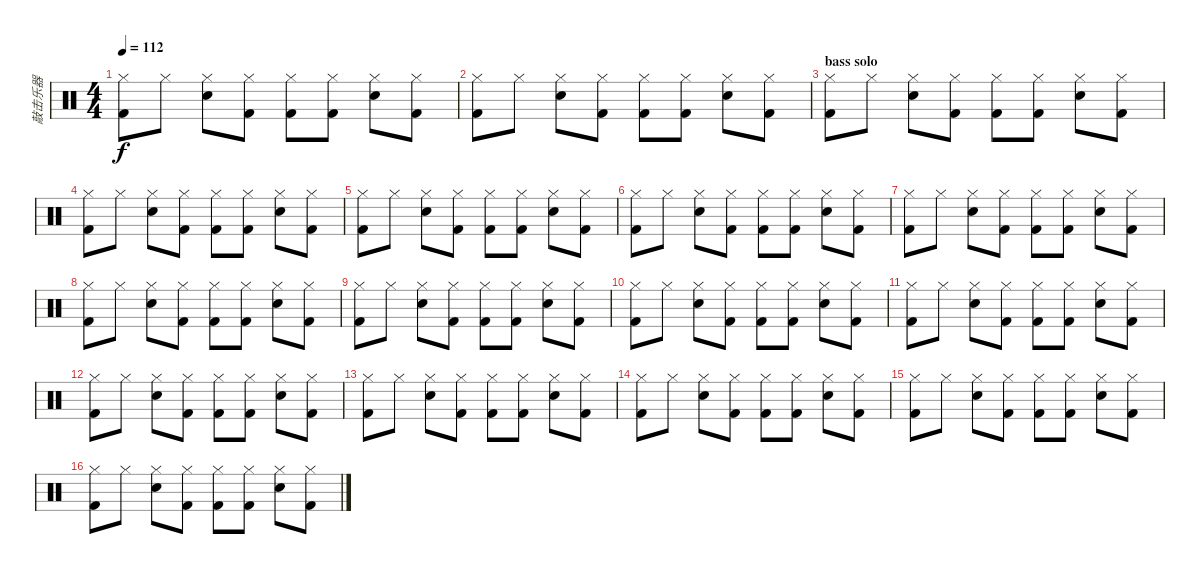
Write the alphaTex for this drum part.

\track ("敲击乐器" "敲击乐器") {instrument percussion}
\staff {score}
\articulation defaults
\ts (4 4)
\tempo 112
\clef neutral
\ks c
("Hi-Hat (closed)" "Kick (hit) 2").8{dy f} "Hi-Hat (closed)".8 ("Hi-Hat (closed)" "Snare (hit) 2").8 ("Hi-Hat (closed)" "Kick (hit) 2").8 ("Hi-Hat (closed)" "Kick (hit) 2").8 ("Hi-Hat (closed)" "Kick (hit) 2").8 ("Hi-Hat (closed)" "Snare (hit) 2").8 ("Hi-Hat (closed)" "Kick (hit) 2").8 |
("Hi-Hat (closed)" "Kick (hit) 2").8 "Hi-Hat (closed)".8 ("Hi-Hat (closed)" "Snare (hit) 2").8 ("Hi-Hat (closed)" "Kick (hit) 2").8 ("Hi-Hat (closed)" "Kick (hit) 2").8 ("Hi-Hat (closed)" "Kick (hit) 2").8 ("Hi-Hat (closed)" "Snare (hit) 2").8 ("Hi-Hat (closed)" "Kick (hit) 2").8 |
\section ("" "bass solo")
("Hi-Hat (closed)" "Kick (hit) 2").8 "Hi-Hat (closed)".8 ("Hi-Hat (closed)" "Snare (hit) 2").8 ("Hi-Hat (closed)" "Kick (hit) 2").8 ("Hi-Hat (closed)" "Kick (hit) 2").8 ("Hi-Hat (closed)" "Kick (hit) 2").8 ("Hi-Hat (closed)" "Snare (hit) 2").8 ("Hi-Hat (closed)" "Kick (hit) 2").8 |
("Hi-Hat (closed)" "Kick (hit) 2").8 "Hi-Hat (closed)".8 ("Hi-Hat (closed)" "Snare (hit) 2").8 ("Hi-Hat (closed)" "Kick (hit) 2").8 ("Hi-Hat (closed)" "Kick (hit) 2").8 ("Hi-Hat (closed)" "Kick (hit) 2").8 ("Hi-Hat (closed)" "Snare (hit) 2").8 ("Hi-Hat (closed)" "Kick (hit) 2").8 |
("Hi-Hat (closed)" "Kick (hit) 2").8 "Hi-Hat (closed)".8 ("Hi-Hat (closed)" "Snare (hit) 2").8 ("Hi-Hat (closed)" "Kick (hit) 2").8 ("Hi-Hat (closed)" "Kick (hit) 2").8 ("Hi-Hat (closed)" "Kick (hit) 2").8 ("Hi-Hat (closed)" "Snare (hit) 2").8 ("Hi-Hat (closed)" "Kick (hit) 2").8 |
("Hi-Hat (closed)" "Kick (hit) 2").8 "Hi-Hat (closed)".8 ("Hi-Hat (closed)" "Snare (hit) 2").8 ("Hi-Hat (closed)" "Kick (hit) 2").8 ("Hi-Hat (closed)" "Kick (hit) 2").8 ("Hi-Hat (closed)" "Kick (hit) 2").8 ("Hi-Hat (closed)" "Snare (hit) 2").8 ("Hi-Hat (closed)" "Kick (hit) 2").8 |
("Hi-Hat (closed)" "Kick (hit) 2").8 "Hi-Hat (closed)".8 ("Hi-Hat (closed)" "Snare (hit) 2").8 ("Hi-Hat (closed)" "Kick (hit) 2").8 ("Hi-Hat (closed)" "Kick (hit) 2").8 ("Hi-Hat (closed)" "Kick (hit) 2").8 ("Hi-Hat (closed)" "Snare (hit) 2").8 ("Hi-Hat (closed)" "Kick (hit) 2").8 |
("Hi-Hat (closed)" "Kick (hit) 2").8 "Hi-Hat (closed)".8 ("Hi-Hat (closed)" "Snare (hit) 2").8 ("Hi-Hat (closed)" "Kick (hit) 2").8 ("Hi-Hat (closed)" "Kick (hit) 2").8 ("Hi-Hat (closed)" "Kick (hit) 2").8 ("Hi-Hat (closed)" "Snare (hit) 2").8 ("Hi-Hat (closed)" "Kick (hit) 2").8 |
("Hi-Hat (closed)" "Kick (hit) 2").8 "Hi-Hat (closed)".8 ("Hi-Hat (closed)" "Snare (hit) 2").8 ("Hi-Hat (closed)" "Kick (hit) 2").8 ("Hi-Hat (closed)" "Kick (hit) 2").8 ("Hi-Hat (closed)" "Kick (hit) 2").8 ("Hi-Hat (closed)" "Snare (hit) 2").8 ("Hi-Hat (closed)" "Kick (hit) 2").8 |
("Hi-Hat (closed)" "Kick (hit) 2").8 "Hi-Hat (closed)".8 ("Hi-Hat (closed)" "Snare (hit) 2").8 ("Hi-Hat (closed)" "Kick (hit) 2").8 ("Hi-Hat (closed)" "Kick (hit) 2").8 ("Hi-Hat (closed)" "Kick (hit) 2").8 ("Hi-Hat (closed)" "Snare (hit) 2").8 ("Hi-Hat (closed)" "Kick (hit) 2").8 |
("Hi-Hat (closed)" "Kick (hit) 2").8 "Hi-Hat (closed)".8 ("Hi-Hat (closed)" "Snare (hit) 2").8 ("Hi-Hat (closed)" "Kick (hit) 2").8 ("Hi-Hat (closed)" "Kick (hit) 2").8 ("Hi-Hat (closed)" "Kick (hit) 2").8 ("Hi-Hat (closed)" "Snare (hit) 2").8 ("Hi-Hat (closed)" "Kick (hit) 2").8 |
("Hi-Hat (closed)" "Kick (hit) 2").8 "Hi-Hat (closed)".8 ("Hi-Hat (closed)" "Snare (hit) 2").8 ("Hi-Hat (closed)" "Kick (hit) 2").8 ("Hi-Hat (closed)" "Kick (hit) 2").8 ("Hi-Hat (closed)" "Kick (hit) 2").8 ("Hi-Hat (closed)" "Snare (hit) 2").8 ("Hi-Hat (closed)" "Kick (hit) 2").8 |
("Hi-Hat (closed)" "Kick (hit) 2").8 "Hi-Hat (closed)".8 ("Hi-Hat (closed)" "Snare (hit) 2").8 ("Hi-Hat (closed)" "Kick (hit) 2").8 ("Hi-Hat (closed)" "Kick (hit) 2").8 ("Hi-Hat (closed)" "Kick (hit) 2").8 ("Hi-Hat (closed)" "Snare (hit) 2").8 ("Hi-Hat (closed)" "Kick (hit) 2").8 |
("Hi-Hat (closed)" "Kick (hit) 2").8 "Hi-Hat (closed)".8 ("Hi-Hat (closed)" "Snare (hit) 2").8 ("Hi-Hat (closed)" "Kick (hit) 2").8 ("Hi-Hat (closed)" "Kick (hit) 2").8 ("Hi-Hat (closed)" "Kick (hit) 2").8 ("Hi-Hat (closed)" "Snare (hit) 2").8 ("Hi-Hat (closed)" "Kick (hit) 2").8 |
("Hi-Hat (closed)" "Kick (hit) 2").8 "Hi-Hat (closed)".8 ("Hi-Hat (closed)" "Snare (hit) 2").8 ("Hi-Hat (closed)" "Kick (hit) 2").8 ("Hi-Hat (closed)" "Kick (hit) 2").8 ("Hi-Hat (closed)" "Kick (hit) 2").8 ("Hi-Hat (closed)" "Snare (hit) 2").8 ("Hi-Hat (closed)" "Kick (hit) 2").8 |
("Hi-Hat (closed)" "Kick (hit) 2").8 "Hi-Hat (closed)".8 ("Hi-Hat (closed)" "Snare (hit) 2").8 ("Hi-Hat (closed)" "Kick (hit) 2").8 ("Hi-Hat (closed)" "Kick (hit) 2").8 ("Hi-Hat (closed)" "Kick (hit) 2").8 ("Hi-Hat (closed)" "Snare (hit) 2").8 ("Hi-Hat (closed)" "Kick (hit) 2").8
